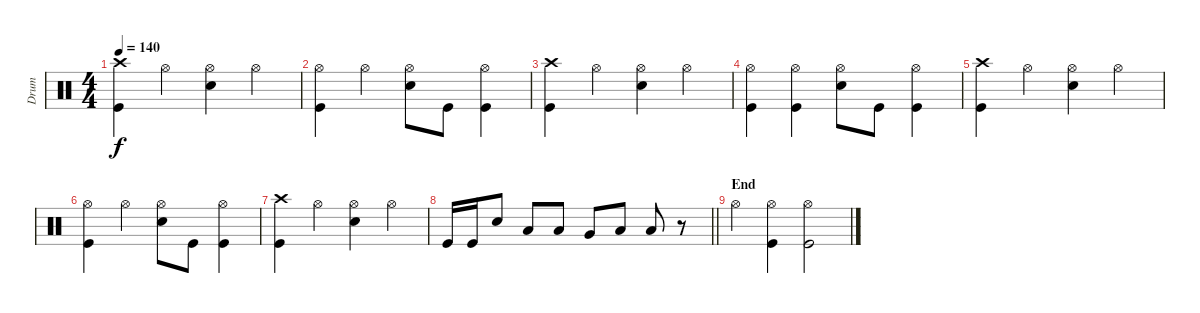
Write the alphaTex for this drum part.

\track ("Drum" "Drum") {instrument percussion}
\staff
\articulation defaults
\ts (4 4)
\tempo 140
\clef neutral
\ks c
("Crash high (hit)" "Kick (hit)").4{dy f} "Hi-Hat (open)".4 ("Hi-Hat (open)" "Snare (hit) 2").4 "Hi-Hat (open)".4 |
("Hi-Hat (open)" "Kick (hit)").4 "Hi-Hat (open)".4 ("Hi-Hat (open)" "Snare (hit) 2").8 "Kick (hit)".8 ("Hi-Hat (open)" "Kick (hit)").4 |
("Crash high (hit)" "Kick (hit)").4 "Hi-Hat (open)".4 ("Hi-Hat (open)" "Snare (hit) 2").4 "Hi-Hat (open)".4 |
("Hi-Hat (open)" "Kick (hit)").4 ("Hi-Hat (open)" "Kick (hit)").4 ("Hi-Hat (open)" "Snare (hit) 2").8 "Kick (hit)".8 ("Hi-Hat (open)" "Kick (hit)").4 |
("Crash high (hit)" "Kick (hit)").4 "Hi-Hat (open)".4 ("Hi-Hat (open)" "Snare (hit) 2").4 "Hi-Hat (open)".4 |
("Hi-Hat (open)" "Kick (hit)").4 "Hi-Hat (open)".4 ("Hi-Hat (open)" "Snare (hit) 2").8 "Kick (hit)".8 ("Hi-Hat (open)" "Kick (hit)").4 |
("Crash high (hit)" "Kick (hit)").4 "Hi-Hat (open)".4 ("Hi-Hat (open)" "Snare (hit) 2").4 "Hi-Hat (open)".4 |
\barLineRight lightlight "Kick (hit)".16 "Kick (hit)".16 "Snare (hit) 2".8 "Low Floor Tom (hit)".8 "Low Floor Tom (hit)".8 "Very Low Tom (hit)".8 "Low Floor Tom (hit)".8 "Low Floor Tom (hit)".8
r.8 |
\section ("" "End")
"Hi-Hat (open)".4 ("Hi-Hat (open)" "Kick (hit)").4 ("Hi-Hat (open)" "Kick (hit)").2
